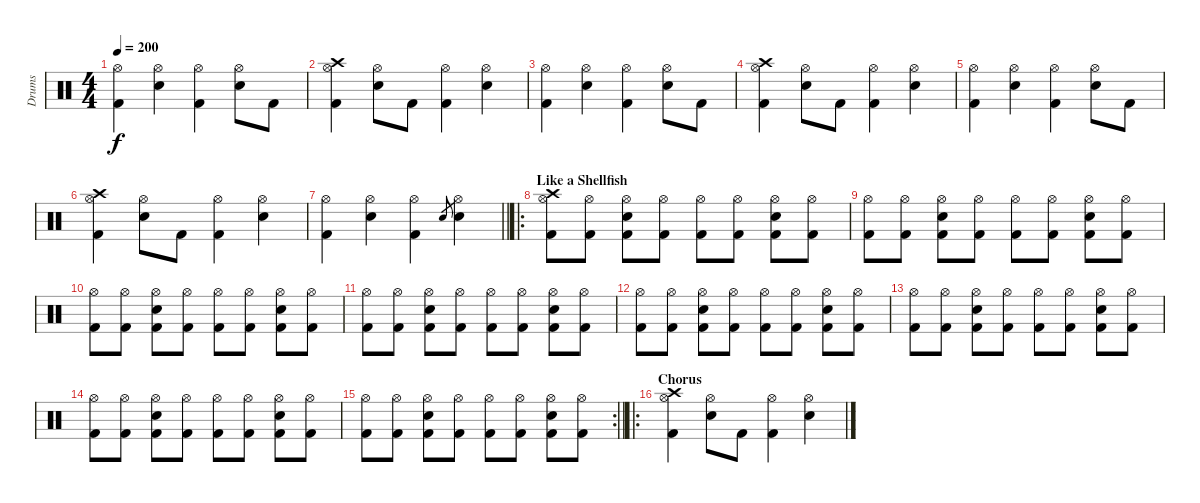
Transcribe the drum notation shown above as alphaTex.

\track ("Drums" "Drums") {instrument percussion}
\staff {score}
\articulation defaults
\ts (4 4)
\tempo 200
\clef neutral
\ks c
("Hi-Hat (open)" "Kick (hit) 2").4{dy f} ("Hi-Hat (open)" "Snare (hit) 2").4 ("Hi-Hat (open)" "Kick (hit) 2").4 ("Hi-Hat (open)" "Snare (hit) 2").8 "Kick (hit) 2".8 |
("Crash high (hit)" "Hi-Hat (open)" "Kick (hit) 2").4 ("Hi-Hat (open)" "Snare (hit) 2").8 "Kick (hit) 2".8 ("Hi-Hat (open)" "Kick (hit) 2").4 ("Hi-Hat (open)" "Snare (hit) 2").4 |
("Hi-Hat (open)" "Kick (hit) 2").4 ("Hi-Hat (open)" "Snare (hit) 2").4 ("Hi-Hat (open)" "Kick (hit) 2").4 ("Hi-Hat (open)" "Snare (hit) 2").8 "Kick (hit) 2".8 |
("Crash high (hit)" "Hi-Hat (open)" "Kick (hit) 2").4 ("Hi-Hat (open)" "Snare (hit) 2").8 "Kick (hit) 2".8 ("Hi-Hat (open)" "Kick (hit) 2").4 ("Hi-Hat (open)" "Snare (hit) 2").4 |
("Hi-Hat (open)" "Kick (hit) 2").4 ("Hi-Hat (open)" "Snare (hit) 2").4 ("Hi-Hat (open)" "Kick (hit) 2").4 ("Hi-Hat (open)" "Snare (hit) 2").8 "Kick (hit) 2".8 |
("Crash high (hit)" "Hi-Hat (open)" "Kick (hit) 2").4 ("Hi-Hat (open)" "Snare (hit) 2").8 "Kick (hit) 2".8 ("Hi-Hat (open)" "Kick (hit) 2").4 ("Hi-Hat (open)" "Snare (hit) 2").4 |
\barLineRight lightlight
("Hi-Hat (open)" "Kick (hit) 2").4 ("Hi-Hat (open)" "Snare (hit) 2").4 ("Hi-Hat (open)" "Kick (hit) 2").4 "Snare (hit) 2".8{gr} ("Hi-Hat (open)" "Snare (hit) 2").4 |
\ro
\section ("" "Like a Shellfish")
("Crash high (hit)" "Hi-Hat (open)" "Kick (hit) 2").8 ("Hi-Hat (open)" "Kick (hit) 2").8 ("Hi-Hat (open)" "Snare (hit) 2" "Kick (hit) 2").8 ("Hi-Hat (open)" "Kick (hit) 2").8 ("Hi-Hat (open)" "Kick (hit) 2").8 ("Hi-Hat (open)" "Kick (hit) 2").8 ("Hi-Hat (open)" "Snare (hit) 2" "Kick (hit) 2").8 ("Hi-Hat (open)" "Kick (hit) 2").8 |
("Hi-Hat (open)" "Kick (hit) 2").8 ("Hi-Hat (open)" "Kick (hit) 2").8 ("Hi-Hat (open)" "Snare (hit) 2" "Kick (hit) 2").8 ("Hi-Hat (open)" "Kick (hit) 2").8 ("Hi-Hat (open)" "Kick (hit) 2").8 ("Hi-Hat (open)" "Kick (hit) 2").8 ("Hi-Hat (open)" "Snare (hit) 2" "Kick (hit) 2").8 ("Hi-Hat (open)" "Kick (hit) 2").8 |
("Hi-Hat (open)" "Kick (hit) 2").8 ("Hi-Hat (open)" "Kick (hit) 2").8 ("Hi-Hat (open)" "Snare (hit) 2" "Kick (hit) 2").8 ("Hi-Hat (open)" "Kick (hit) 2").8 ("Hi-Hat (open)" "Kick (hit) 2").8 ("Hi-Hat (open)" "Kick (hit) 2").8 ("Hi-Hat (open)" "Snare (hit) 2" "Kick (hit) 2").8 ("Hi-Hat (open)" "Kick (hit) 2").8 |
("Hi-Hat (open)" "Kick (hit) 2").8 ("Hi-Hat (open)" "Kick (hit) 2").8 ("Hi-Hat (open)" "Snare (hit) 2" "Kick (hit) 2").8 ("Hi-Hat (open)" "Kick (hit) 2").8 ("Hi-Hat (open)" "Kick (hit) 2").8 ("Hi-Hat (open)" "Kick (hit) 2").8 ("Hi-Hat (open)" "Snare (hit) 2" "Kick (hit) 2").8 ("Hi-Hat (open)" "Kick (hit) 2").8 |
("Hi-Hat (open)" "Kick (hit) 2").8 ("Hi-Hat (open)" "Kick (hit) 2").8 ("Hi-Hat (open)" "Snare (hit) 2" "Kick (hit) 2").8 ("Hi-Hat (open)" "Kick (hit) 2").8 ("Hi-Hat (open)" "Kick (hit) 2").8 ("Hi-Hat (open)" "Kick (hit) 2").8 ("Hi-Hat (open)" "Snare (hit) 2" "Kick (hit) 2").8 ("Hi-Hat (open)" "Kick (hit) 2").8 |
("Hi-Hat (open)" "Kick (hit) 2").8 ("Hi-Hat (open)" "Kick (hit) 2").8 ("Hi-Hat (open)" "Snare (hit) 2" "Kick (hit) 2").8 ("Hi-Hat (open)" "Kick (hit) 2").8 ("Hi-Hat (open)" "Kick (hit) 2").8 ("Hi-Hat (open)" "Kick (hit) 2").8 ("Hi-Hat (open)" "Snare (hit) 2" "Kick (hit) 2").8 ("Hi-Hat (open)" "Kick (hit) 2").8 |
("Hi-Hat (open)" "Kick (hit) 2").8 ("Hi-Hat (open)" "Kick (hit) 2").8 ("Hi-Hat (open)" "Snare (hit) 2" "Kick (hit) 2").8 ("Hi-Hat (open)" "Kick (hit) 2").8 ("Hi-Hat (open)" "Kick (hit) 2").8 ("Hi-Hat (open)" "Kick (hit) 2").8 ("Hi-Hat (open)" "Snare (hit) 2" "Kick (hit) 2").8 ("Hi-Hat (open)" "Kick (hit) 2").8 |
\rc 2
\barLineRight lightlight
("Hi-Hat (open)" "Kick (hit) 2").8 ("Hi-Hat (open)" "Kick (hit) 2").8 ("Hi-Hat (open)" "Snare (hit) 2" "Kick (hit) 2").8 ("Hi-Hat (open)" "Kick (hit) 2").8 ("Hi-Hat (open)" "Kick (hit) 2").8 ("Hi-Hat (open)" "Kick (hit) 2").8 ("Hi-Hat (open)" "Snare (hit) 2" "Kick (hit) 2").8 ("Hi-Hat (open)" "Kick (hit) 2").8 |
\ro
\section ("" "Chorus")
("Crash high (hit)" "Hi-Hat (open)" "Kick (hit) 2").4 ("Hi-Hat (open)" "Snare (hit) 2").8 "Kick (hit) 2".8 ("Hi-Hat (open)" "Kick (hit) 2").4 ("Hi-Hat (open)" "Snare (hit) 2").4
